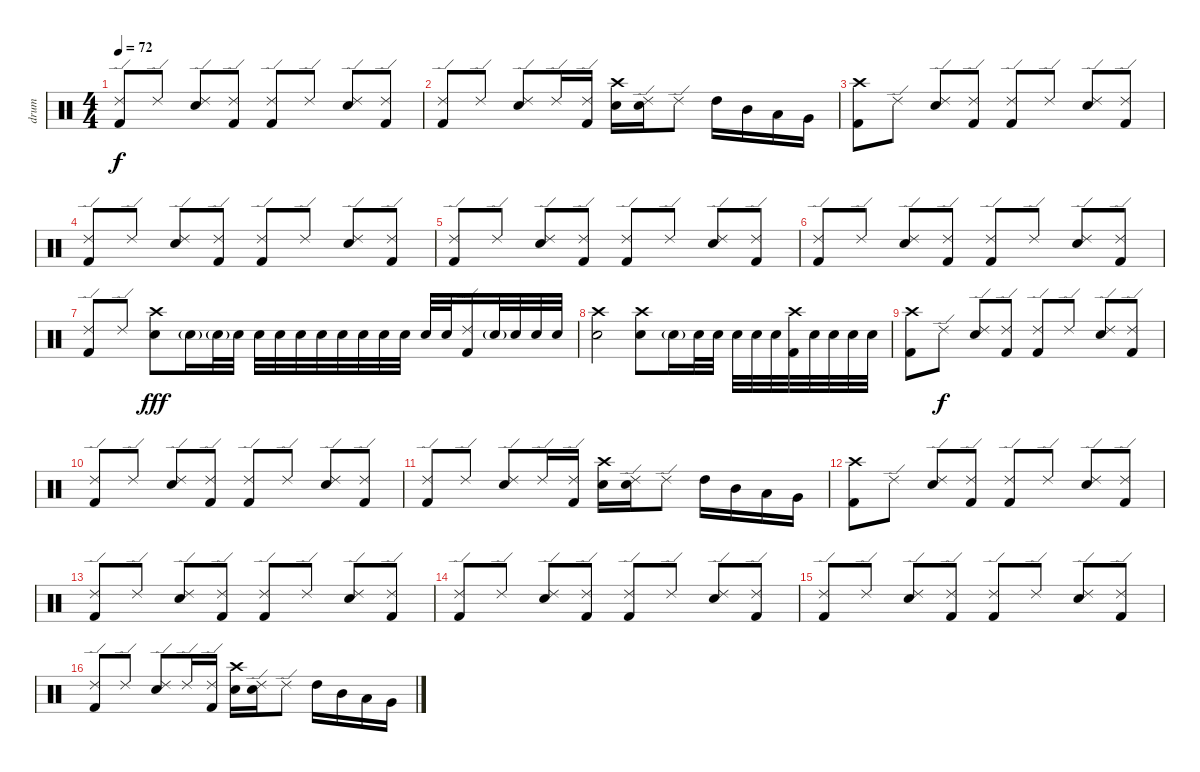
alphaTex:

\track ("drum" "drum") {instrument percussion}
\staff {score}
\articulation defaults
\ts (4 4)
\tempo 72
\clef neutral
\ks c
("Ride (edge) 2" "Kick (hit) 2").8{dy f} "Ride (edge) 2".8 ("Ride (edge) 2" "Snare (hit) 2").8 ("Ride (edge) 2" "Kick (hit) 2").8 ("Ride (edge) 2" "Kick (hit) 2").8 "Ride (edge) 2".8 ("Ride (edge) 2" "Snare (hit) 2").8 ("Ride (edge) 2" "Kick (hit) 2").8 |
("Ride (edge) 2" "Kick (hit) 2").8 "Ride (edge) 2".8 ("Ride (edge) 2" "Snare (hit) 2").8 "Ride (edge) 2".16 ("Ride (edge) 2" "Kick (hit) 2").16 ("Crash high (hit)" "Snare (hit) 2").16 ("Ride (edge) 2" "Snare (hit) 2").16 "Ride (edge) 2".8 "High Tom (hit)".16 "Mid Tom (hit)".16 "Low Tom (hit)".16 "Very Low Tom (hit)".16 |
("Crash high (hit)" "Kick (hit) 2").8 "Ride (edge) 2".8 ("Ride (edge) 2" "Snare (hit) 2").8 ("Ride (edge) 2" "Kick (hit) 2").8 ("Ride (edge) 2" "Kick (hit) 2").8 "Ride (edge) 2".8 ("Ride (edge) 2" "Snare (hit) 2").8 ("Ride (edge) 2" "Kick (hit) 2").8 |
("Ride (edge) 2" "Kick (hit) 2").8 "Ride (edge) 2".8 ("Ride (edge) 2" "Snare (hit) 2").8 ("Ride (edge) 2" "Kick (hit) 2").8 ("Ride (edge) 2" "Kick (hit) 2").8 "Ride (edge) 2".8 ("Ride (edge) 2" "Snare (hit) 2").8 ("Ride (edge) 2" "Kick (hit) 2").8 |
("Ride (edge) 2" "Kick (hit) 2").8 "Ride (edge) 2".8 ("Ride (edge) 2" "Snare (hit) 2").8 ("Ride (edge) 2" "Kick (hit) 2").8 ("Ride (edge) 2" "Kick (hit) 2").8 "Ride (edge) 2".8 ("Ride (edge) 2" "Snare (hit) 2").8 ("Ride (edge) 2" "Kick (hit) 2").8 |
("Ride (edge) 2" "Kick (hit) 2").8 "Ride (edge) 2".8 ("Ride (edge) 2" "Snare (hit) 2").8 ("Ride (edge) 2" "Kick (hit) 2").8 ("Ride (edge) 2" "Kick (hit) 2").8 "Ride (edge) 2".8 ("Ride (edge) 2" "Snare (hit) 2").8 ("Ride (edge) 2" "Kick (hit) 2").8 |
("Ride (edge) 2" "Kick (hit) 2").8 "Ride (edge) 2".8 ("Crash high (hit)" "Snare (hit) 2").8{dy fff} "Snare (hit) 2"{g}.16 "Snare (hit) 2"{g}.32 "Snare (hit) 2".32 "Snare (hit) 2".32 "Snare (hit) 2".32 "Snare (hit) 2".32 "Snare (hit) 2".32 "Snare (hit) 2".32 "Snare (hit) 2".32 "Snare (hit) 2".32 "Snare (hit) 2".32 "Snare (hit) 2".32 "Snare (hit) 2".32 ("Ride (edge) 2" "Kick (hit) 2").16 "Snare (hit) 2"{g}.32 "Snare (hit) 2".32 "Snare (hit) 2".32 "Snare (hit) 2".32 |
("Crash high (hit)" "Snare (hit) 2").2 ("Crash high (hit)" "Snare (hit) 2").8 "Snare (hit) 2"{g}.16 "Snare (hit) 2".32 "Snare (hit) 2".32 "Snare (hit) 2".32 "Snare (hit) 2".32 "Snare (hit) 2".32 ("Crash high (hit)" "Kick (hit) 2").32 "Snare (hit) 2".32 "Snare (hit) 2".32 "Snare (hit) 2".32 "Snare (hit) 2".32 |
("Crash high (hit)" "Kick (hit) 2").8 "Ride (edge) 2".8{dy f} ("Ride (edge) 2" "Snare (hit) 2").8 ("Ride (edge) 2" "Kick (hit) 2").8 ("Ride (edge) 2" "Kick (hit) 2").8 "Ride (edge) 2".8 ("Ride (edge) 2" "Snare (hit) 2").8 ("Ride (edge) 2" "Kick (hit) 2").8 |
("Ride (edge) 2" "Kick (hit) 2").8 "Ride (edge) 2".8 ("Ride (edge) 2" "Snare (hit) 2").8 ("Ride (edge) 2" "Kick (hit) 2").8 ("Ride (edge) 2" "Kick (hit) 2").8 "Ride (edge) 2".8 ("Ride (edge) 2" "Snare (hit) 2").8 ("Ride (edge) 2" "Kick (hit) 2").8 |
("Ride (edge) 2" "Kick (hit) 2").8 "Ride (edge) 2".8 ("Ride (edge) 2" "Snare (hit) 2").8 "Ride (edge) 2".16 ("Ride (edge) 2" "Kick (hit) 2").16 ("Crash high (hit)" "Snare (hit) 2").16 ("Ride (edge) 2" "Snare (hit) 2").16 "Ride (edge) 2".8 "High Tom (hit)".16 "Mid Tom (hit)".16 "Low Tom (hit)".16 "Very Low Tom (hit)".16 |
("Crash high (hit)" "Kick (hit) 2").8 "Ride (edge) 2".8 ("Ride (edge) 2" "Snare (hit) 2").8 ("Ride (edge) 2" "Kick (hit) 2").8 ("Ride (edge) 2" "Kick (hit) 2").8 "Ride (edge) 2".8 ("Ride (edge) 2" "Snare (hit) 2").8 ("Ride (edge) 2" "Kick (hit) 2").8 |
("Ride (edge) 2" "Kick (hit) 2").8 "Ride (edge) 2".8 ("Ride (edge) 2" "Snare (hit) 2").8 ("Ride (edge) 2" "Kick (hit) 2").8 ("Ride (edge) 2" "Kick (hit) 2").8 "Ride (edge) 2".8 ("Ride (edge) 2" "Snare (hit) 2").8 ("Ride (edge) 2" "Kick (hit) 2").8 |
("Ride (edge) 2" "Kick (hit) 2").8 "Ride (edge) 2".8 ("Ride (edge) 2" "Snare (hit) 2").8 ("Ride (edge) 2" "Kick (hit) 2").8 ("Ride (edge) 2" "Kick (hit) 2").8 "Ride (edge) 2".8 ("Ride (edge) 2" "Snare (hit) 2").8 ("Ride (edge) 2" "Kick (hit) 2").8 |
("Ride (edge) 2" "Kick (hit) 2").8 "Ride (edge) 2".8 ("Ride (edge) 2" "Snare (hit) 2").8 ("Ride (edge) 2" "Kick (hit) 2").8 ("Ride (edge) 2" "Kick (hit) 2").8 "Ride (edge) 2".8 ("Ride (edge) 2" "Snare (hit) 2").8 ("Ride (edge) 2" "Kick (hit) 2").8 |
("Ride (edge) 2" "Kick (hit) 2").8 "Ride (edge) 2".8 ("Ride (edge) 2" "Snare (hit) 2").8 "Ride (edge) 2".16 ("Ride (edge) 2" "Kick (hit) 2").16 ("Crash high (hit)" "Snare (hit) 2").16 ("Ride (edge) 2" "Snare (hit) 2").16 "Ride (edge) 2".8 "High Tom (hit)".16 "Mid Tom (hit)".16 "Low Tom (hit)".16 "Very Low Tom (hit)".16
